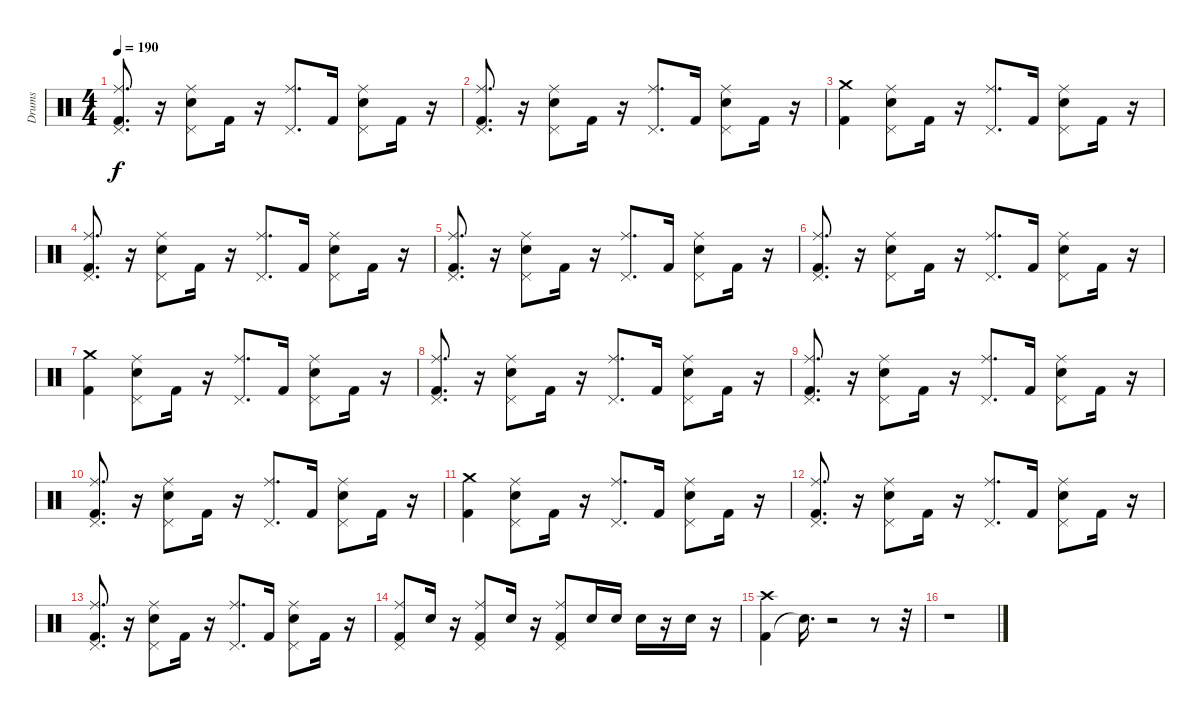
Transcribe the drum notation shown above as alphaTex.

\track ("Drums" "Drums") {instrument percussion}
\staff {score}
\articulation defaults
\ts (4 4)
\tempo 190
\clef neutral
\ks c
("Kick (hit) 2" "Ride (middle)" "Pedal Hi-Hat (hit)").8{d dy f} r.16 ("Electric Snare (hit)" "Ride (middle)" "Pedal Hi-Hat (hit)").8 "Kick (hit) 2".16 r.16 ("Ride (middle)" "Pedal Hi-Hat (hit)").8{d} "Kick (hit) 2".16 ("Electric Snare (hit)" "Ride (middle)" "Pedal Hi-Hat (hit)").8 "Kick (hit) 2".16 r.16 |
("Kick (hit) 2" "Ride (middle)" "Pedal Hi-Hat (hit)").8{d} r.16 ("Electric Snare (hit)" "Ride (middle)" "Pedal Hi-Hat (hit)").8 "Kick (hit) 2".16 r.16 ("Ride (middle)" "Pedal Hi-Hat (hit)").8{d} "Kick (hit) 2".16 ("Electric Snare (hit)" "Ride (middle)" "Pedal Hi-Hat (hit)").8 "Kick (hit) 2".16 r.16 |
("Kick (hit) 2" "Crash medium (hit)").4 ("Electric Snare (hit)" "Ride (middle)" "Pedal Hi-Hat (hit)").8 "Kick (hit) 2".16 r.16 ("Ride (middle)" "Pedal Hi-Hat (hit)").8{d} "Kick (hit) 2".16 ("Electric Snare (hit)" "Ride (middle)" "Pedal Hi-Hat (hit)").8 "Kick (hit) 2".16 r.16 |
("Kick (hit) 2" "Ride (middle)" "Pedal Hi-Hat (hit)").8{d} r.16 ("Electric Snare (hit)" "Ride (middle)" "Pedal Hi-Hat (hit)").8 "Kick (hit) 2".16 r.16 ("Ride (middle)" "Pedal Hi-Hat (hit)").8{d} "Kick (hit) 2".16 ("Electric Snare (hit)" "Ride (middle)" "Pedal Hi-Hat (hit)").8 "Kick (hit) 2".16 r.16 |
("Kick (hit) 2" "Ride (middle)" "Pedal Hi-Hat (hit)").8{d} r.16 ("Electric Snare (hit)" "Ride (middle)" "Pedal Hi-Hat (hit)").8 "Kick (hit) 2".16 r.16 ("Ride (middle)" "Pedal Hi-Hat (hit)").8{d} "Kick (hit) 2".16 ("Electric Snare (hit)" "Ride (middle)" "Pedal Hi-Hat (hit)").8 "Kick (hit) 2".16 r.16 |
("Kick (hit) 2" "Ride (middle)" "Pedal Hi-Hat (hit)").8{d} r.16 ("Electric Snare (hit)" "Ride (middle)" "Pedal Hi-Hat (hit)").8 "Kick (hit) 2".16 r.16 ("Ride (middle)" "Pedal Hi-Hat (hit)").8{d} "Kick (hit) 2".16 ("Electric Snare (hit)" "Ride (middle)" "Pedal Hi-Hat (hit)").8 "Kick (hit) 2".16 r.16 |
("Kick (hit) 2" "Crash medium (hit)").4 ("Electric Snare (hit)" "Ride (middle)" "Pedal Hi-Hat (hit)").8 "Kick (hit) 2".16 r.16 ("Ride (middle)" "Pedal Hi-Hat (hit)").8{d} "Kick (hit) 2".16 ("Electric Snare (hit)" "Ride (middle)" "Pedal Hi-Hat (hit)").8 "Kick (hit) 2".16 r.16 |
("Kick (hit) 2" "Ride (middle)" "Pedal Hi-Hat (hit)").8{d} r.16 ("Electric Snare (hit)" "Ride (middle)" "Pedal Hi-Hat (hit)").8 "Kick (hit) 2".16 r.16 ("Ride (middle)" "Pedal Hi-Hat (hit)").8{d} "Kick (hit) 2".16 ("Electric Snare (hit)" "Ride (middle)" "Pedal Hi-Hat (hit)").8 "Kick (hit) 2".16 r.16 |
("Kick (hit) 2" "Ride (middle)" "Pedal Hi-Hat (hit)").8{d} r.16 ("Electric Snare (hit)" "Ride (middle)" "Pedal Hi-Hat (hit)").8 "Kick (hit) 2".16 r.16 ("Ride (middle)" "Pedal Hi-Hat (hit)").8{d} "Kick (hit) 2".16 ("Electric Snare (hit)" "Ride (middle)" "Pedal Hi-Hat (hit)").8 "Kick (hit) 2".16 r.16 |
("Kick (hit) 2" "Ride (middle)" "Pedal Hi-Hat (hit)").8{d} r.16 ("Electric Snare (hit)" "Ride (middle)" "Pedal Hi-Hat (hit)").8 "Kick (hit) 2".16 r.16 ("Ride (middle)" "Pedal Hi-Hat (hit)").8{d} "Kick (hit) 2".16 ("Electric Snare (hit)" "Ride (middle)" "Pedal Hi-Hat (hit)").8 "Kick (hit) 2".16 r.16 |
("Kick (hit) 2" "Crash medium (hit)").4 ("Electric Snare (hit)" "Ride (middle)" "Pedal Hi-Hat (hit)").8 "Kick (hit) 2".16 r.16 ("Ride (middle)" "Pedal Hi-Hat (hit)").8{d} "Kick (hit) 2".16 ("Electric Snare (hit)" "Ride (middle)" "Pedal Hi-Hat (hit)").8 "Kick (hit) 2".16 r.16 |
("Kick (hit) 2" "Ride (middle)" "Pedal Hi-Hat (hit)").8{d} r.16 ("Electric Snare (hit)" "Ride (middle)" "Pedal Hi-Hat (hit)").8 "Kick (hit) 2".16 r.16 ("Ride (middle)" "Pedal Hi-Hat (hit)").8{d} "Kick (hit) 2".16 ("Electric Snare (hit)" "Ride (middle)" "Pedal Hi-Hat (hit)").8 "Kick (hit) 2".16 r.16 |
("Kick (hit) 2" "Ride (middle)" "Pedal Hi-Hat (hit)").8{d} r.16 ("Electric Snare (hit)" "Ride (middle)" "Pedal Hi-Hat (hit)").8 "Kick (hit) 2".16 r.16 ("Ride (middle)" "Pedal Hi-Hat (hit)").8{d} "Kick (hit) 2".16 ("Electric Snare (hit)" "Ride (middle)" "Pedal Hi-Hat (hit)").8 "Kick (hit) 2".16 r.16 |
("Kick (hit) 2" "Ride (middle)" "Pedal Hi-Hat (hit)").8 "Electric Snare (hit)".16 r.16 ("Ride (middle)" "Pedal Hi-Hat (hit)" "Kick (hit) 2").8 "Electric Snare (hit)".16 r.16 ("Ride (middle)" "Pedal Hi-Hat (hit)" "Kick (hit) 2").8 "Electric Snare (hit)".16 "Electric Snare (hit)".16 "Electric Snare (hit)".16 r.16 "Electric Snare (hit)".16 r.16 |
("Kick (hit) 2" "Crash high (hit)").4 "Snare (hit)"{t}.16{d} r.2 r.8 r.32 |
r.1
